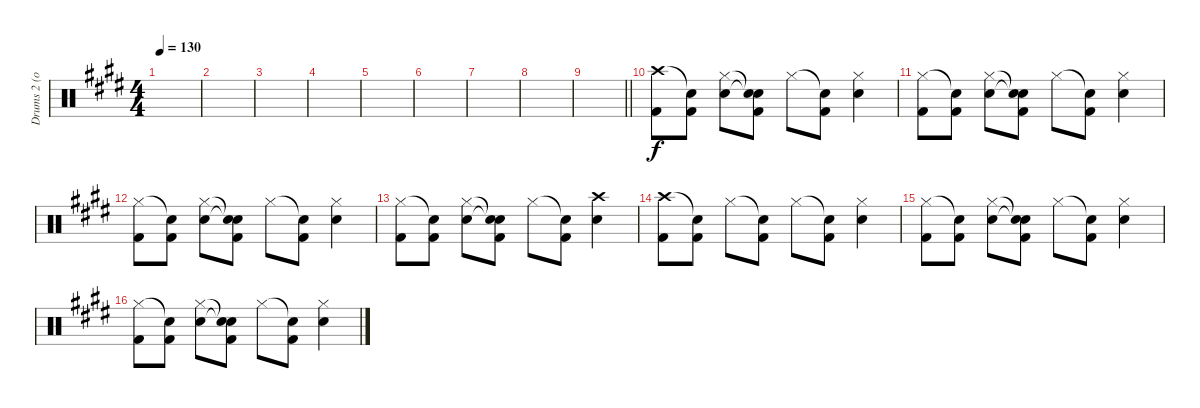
\track ("Drums 2 (optional)" "Drums 2 (o") {instrument percussion}
\staff {score}
\articulation defaults
\ts (4 4)
\tempo 130
\clef neutral
\ks e
|
|
|
|
|
|
|
|
\barLineRight lightlight
|
("Crash high (hit)" "Kick (hit) 2").8 ("Snare (hit)"{t} "Kick (hit) 2").8 ("Hi-Hat (closed)" "Snare (hit) 2").8 ("Snare (hit)"{t} "Snare (hit)"{t} "Kick (hit) 2").8 "Hi-Hat (closed)".8 ("Snare (hit)"{t} "Kick (hit) 2").8 ("Hi-Hat (closed)" "Snare (hit) 2").4 |
("Hi-Hat (closed)" "Kick (hit) 2").8 ("Snare (hit)"{t} "Kick (hit) 2").8 ("Hi-Hat (closed)" "Snare (hit) 2").8 ("Snare (hit)"{t} "Snare (hit)"{t} "Kick (hit) 2").8 "Hi-Hat (closed)".8 ("Snare (hit)"{t} "Kick (hit) 2").8 ("Hi-Hat (closed)" "Snare (hit) 2").4 |
("Hi-Hat (closed)" "Kick (hit) 2").8 ("Snare (hit)"{t} "Kick (hit) 2").8 ("Hi-Hat (closed)" "Snare (hit) 2").8 ("Snare (hit)"{t} "Snare (hit)"{t} "Kick (hit) 2").8 "Hi-Hat (closed)".8 ("Snare (hit)"{t} "Kick (hit) 2").8 ("Hi-Hat (closed)" "Snare (hit) 2").4 |
("Hi-Hat (closed)" "Kick (hit) 2").8 ("Snare (hit)"{t} "Kick (hit) 2").8 ("Hi-Hat (closed)" "Snare (hit) 2").8 ("Snare (hit)"{t} "Snare (hit)"{t} "Kick (hit) 2").8 "Hi-Hat (closed)".8 ("Snare (hit)"{t} "Kick (hit) 2").8 ("Crash high (hit)" "Snare (hit) 2").4 |
("Crash high (hit)" "Kick (hit) 2").8 ("Snare (hit)"{t} "Kick (hit) 2").8 "Hi-Hat (closed)".8 ("Snare (hit)"{t} "Kick (hit) 2").8 "Hi-Hat (closed)".8 ("Snare (hit)"{t} "Kick (hit) 2").8 ("Hi-Hat (closed)" "Snare (hit) 2").4 |
("Hi-Hat (closed)" "Kick (hit) 2").8 ("Snare (hit)"{t} "Kick (hit) 2").8 ("Hi-Hat (closed)" "Snare (hit) 2").8 ("Snare (hit)"{t} "Snare (hit)"{t} "Kick (hit) 2").8 "Hi-Hat (closed)".8 ("Snare (hit)"{t} "Kick (hit) 2").8 ("Hi-Hat (closed)" "Snare (hit) 2").4 |
("Hi-Hat (closed)" "Kick (hit) 2").8 ("Snare (hit)"{t} "Kick (hit) 2").8 ("Hi-Hat (closed)" "Snare (hit) 2").8 ("Snare (hit)"{t} "Snare (hit)"{t} "Kick (hit) 2").8 "Hi-Hat (closed)".8 ("Snare (hit)"{t} "Kick (hit) 2").8 ("Hi-Hat (closed)" "Snare (hit) 2").4
